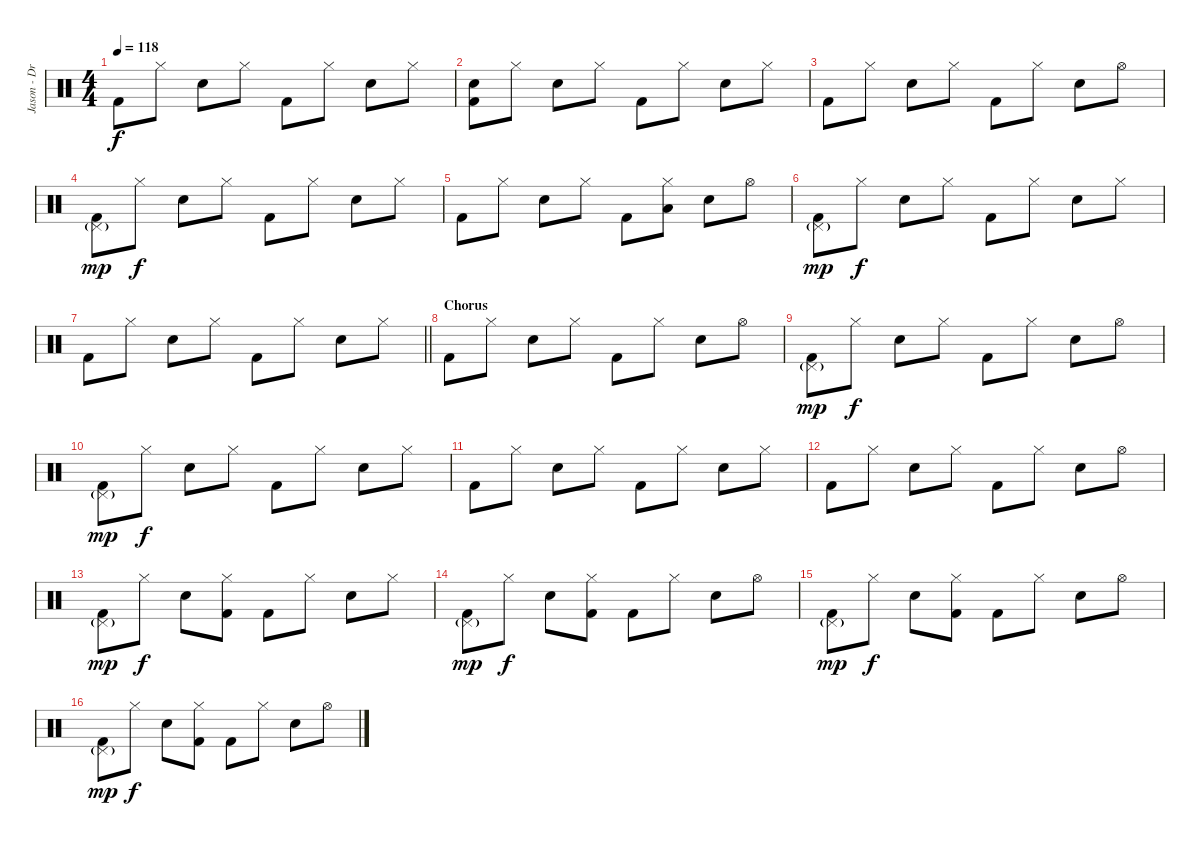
\track ("Jason - Drums" "Jason - Dr") {instrument percussion}
\staff {score}
\articulation defaults
\ts (4 4)
\tempo 118
\clef neutral
\ks c "Kick (hit) 2".8{dy f} "Hi-Hat (closed)".8 "Electric Snare (hit)".8 "Hi-Hat (closed)".8 "Kick (hit) 2".8 "Hi-Hat (closed)".8 "Electric Snare (hit)".8 "Hi-Hat (closed)".8
|
("Electric Snare (hit)" "Kick (hit) 2").8 "Hi-Hat (closed)".8 "Electric Snare (hit)".8 "Hi-Hat (closed)".8 "Kick (hit) 2".8 "Hi-Hat (closed)".8 "Electric Snare (hit)".8 "Hi-Hat (closed)".8 |
"Kick (hit) 2".8 "Hi-Hat (closed)".8 "Electric Snare (hit)".8 "Hi-Hat (closed)".8 "Kick (hit) 2".8 "Hi-Hat (closed)".8 "Electric Snare (hit)".8 "Hi-Hat (open)".8 |
("Pedal Hi-Hat (hit)"{g} "Kick (hit) 2").8{dy mp} "Hi-Hat (closed)".8{dy f} "Electric Snare (hit)".8 "Hi-Hat (closed)".8 "Kick (hit) 2".8 "Hi-Hat (closed)".8 "Electric Snare (hit)".8 "Hi-Hat (closed)".8 |
"Kick (hit) 2".8 "Hi-Hat (closed)".8 "Electric Snare (hit)".8 "Hi-Hat (closed)".8 "Kick (hit) 2".8 ("Hi-Hat (closed)" "Low Floor Tom (hit)").8 "Electric Snare (hit)".8 "Hi-Hat (open)".8 |
("Pedal Hi-Hat (hit)"{g} "Kick (hit) 2").8{dy mp} "Hi-Hat (closed)".8{dy f} "Electric Snare (hit)".8 "Hi-Hat (closed)".8 "Kick (hit) 2".8 "Hi-Hat (closed)".8 "Electric Snare (hit)".8 "Hi-Hat (closed)".8 |
\barLineRight lightlight "Kick (hit) 2".8 "Hi-Hat (closed)".8 "Electric Snare (hit)".8 "Hi-Hat (closed)".8 "Kick (hit) 2".8 "Hi-Hat (closed)".8 "Electric Snare (hit)".8 "Hi-Hat (closed)".8
|
\section ("" "Chorus")
"Kick (hit) 2".8 "Hi-Hat (closed)".8 "Electric Snare (hit)".8 "Hi-Hat (closed)".8 "Kick (hit) 2".8 "Hi-Hat (closed)".8 "Electric Snare (hit)".8 "Hi-Hat (open)".8 |
("Pedal Hi-Hat (hit)"{g} "Kick (hit) 2").8{dy mp} "Hi-Hat (closed)".8{dy f} "Electric Snare (hit)".8 "Hi-Hat (closed)".8 "Kick (hit) 2".8 "Hi-Hat (closed)".8 "Electric Snare (hit)".8 "Hi-Hat (open)".8 |
("Pedal Hi-Hat (hit)"{g} "Kick (hit) 2").8{dy mp} "Hi-Hat (closed)".8{dy f} "Electric Snare (hit)".8 "Hi-Hat (closed)".8 "Kick (hit) 2".8 "Hi-Hat (closed)".8 "Electric Snare (hit)".8 "Hi-Hat (closed)".8 |
"Kick (hit) 2".8 "Hi-Hat (closed)".8 "Electric Snare (hit)".8 "Hi-Hat (closed)".8 "Kick (hit) 2".8 "Hi-Hat (closed)".8 "Electric Snare (hit)".8 "Hi-Hat (closed)".8 |
"Kick (hit) 2".8 "Hi-Hat (closed)".8 "Electric Snare (hit)".8 "Hi-Hat (closed)".8 "Kick (hit) 2".8 "Hi-Hat (closed)".8 "Electric Snare (hit)".8 "Hi-Hat (open)".8 |
("Pedal Hi-Hat (hit)"{g} "Kick (hit) 2").8{dy mp} "Hi-Hat (closed)".8{dy f} "Electric Snare (hit)".8 ("Hi-Hat (closed)" "Kick (hit) 2").8 "Kick (hit) 2".8 "Hi-Hat (closed)".8 "Electric Snare (hit)".8 "Hi-Hat (closed)".8 |
("Pedal Hi-Hat (hit)"{g} "Kick (hit) 2").8{dy mp} "Hi-Hat (closed)".8{dy f} "Electric Snare (hit)".8 ("Hi-Hat (closed)" "Kick (hit) 2").8 "Kick (hit) 2".8 "Hi-Hat (closed)".8 "Electric Snare (hit)".8 "Hi-Hat (open)".8 |
("Pedal Hi-Hat (hit)"{g} "Kick (hit) 2").8{dy mp} "Hi-Hat (closed)".8{dy f} "Electric Snare (hit)".8 ("Hi-Hat (closed)" "Kick (hit) 2").8 "Kick (hit) 2".8 "Hi-Hat (closed)".8 "Electric Snare (hit)".8 "Hi-Hat (open)".8 |
("Pedal Hi-Hat (hit)"{g} "Kick (hit) 2").8{dy mp} "Hi-Hat (closed)".8{dy f} "Electric Snare (hit)".8 ("Hi-Hat (closed)" "Kick (hit) 2").8 "Kick (hit) 2".8 "Hi-Hat (closed)".8 "Electric Snare (hit)".8 "Hi-Hat (open)".8
